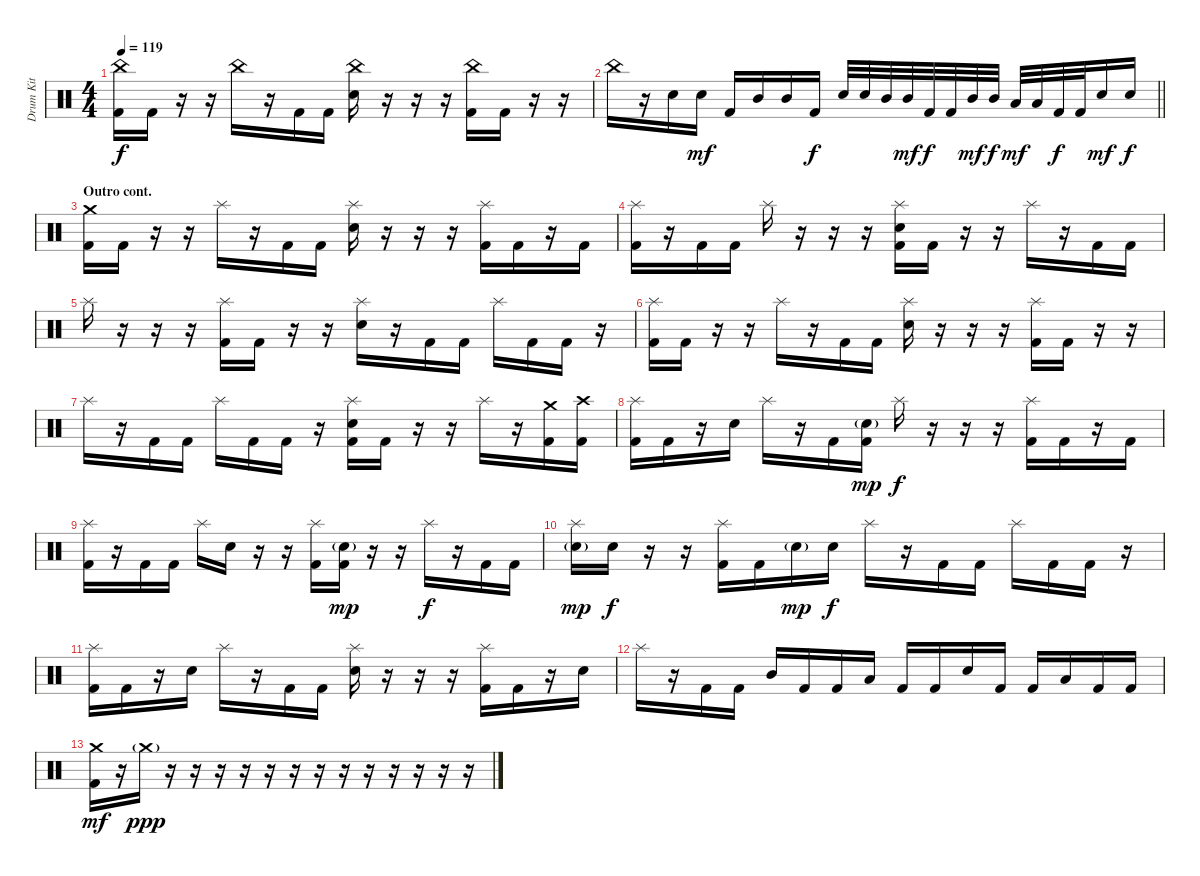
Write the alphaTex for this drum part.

\track ("Drum Kit" "Drum Kit") {instrument percussion}
\staff {score}
\articulation defaults
\ts (4 4)
\tempo 119
\clef neutral
\ks c
("China (hit)" "Kick (hit) 2").16{dy f} "Kick (hit) 2".16 r.16 r.16 "China (hit)".16 r.16 "Kick (hit) 2".16 "Kick (hit) 2".16 ("China (hit)" "Electric Snare (hit)").16 r.16 r.16 r.16 ("China (hit)" "Kick (hit) 2").16 "Kick (hit) 2".16 r.16 r.16 |
\barLineRight lightlight "China (hit)".16
r.16 "Electric Snare (hit)".16 "Electric Snare (hit)".16{dy mf} "Kick (hit) 2".16 "Mid Tom (hit)".16 "Mid Tom (hit)".16 "Kick (hit) 2".16{dy f} "Electric Snare (hit)".32 "Electric Snare (hit)".32 "Mid Tom (hit)".32 "Mid Tom (hit)".32{dy mf} "Kick (hit) 2".32{dy f} "Kick (hit) 2".32 "Mid Tom (hit)".32{dy mf} "Mid Tom (hit)".32{dy f} "Low Tom (hit)".32{dy mf} "Low Tom (hit)".32 "Kick (hit) 2".32{dy f} "Kick (hit) 2".32 "Electric Snare (hit)".16{dy mf} "Electric Snare (hit)".16{dy f} |
\section ("" "Outro cont.")
("Crash medium (hit)" "Kick (hit) 2").16 "Kick (hit) 2".16 r.16 r.16 "Splash (hit)".16 r.16 "Kick (hit) 2".16 "Kick (hit) 2".16 ("Splash (hit)" "Electric Snare (hit)").16 r.16 r.16 r.16 ("Splash (hit)" "Kick (hit) 2").16 "Kick (hit) 2".16 r.16 "Kick (hit) 2".16 |
("Splash (hit)" "Kick (hit) 2").16 r.16 "Kick (hit) 2".16 "Kick (hit) 2".16 "Splash (hit)".16 r.16 r.16 r.16 ("Splash (hit)" "Electric Snare (hit)" "Kick (hit) 2").16 "Kick (hit) 2".16 r.16 r.16 "Splash (hit)".16 r.16 "Kick (hit) 2".16 "Kick (hit) 2".16 |
"Splash (hit)".16 r.16 r.16 r.16 ("Splash (hit)" "Kick (hit) 2").16 "Kick (hit) 2".16 r.16 r.16 ("Splash (hit)" "Electric Snare (hit)").16 r.16 "Kick (hit) 2".16 "Kick (hit) 2".16 "Splash (hit)".16 "Kick (hit) 2".16 "Kick (hit) 2".16 r.16 |
("Splash (hit)" "Kick (hit) 2").16 "Kick (hit) 2".16 r.16 r.16 "Splash (hit)".16 r.16 "Kick (hit) 2".16 "Kick (hit) 2".16 ("Splash (hit)" "Electric Snare (hit)").16 r.16 r.16 r.16 ("Splash (hit)" "Kick (hit) 2").16 "Kick (hit) 2".16 r.16 r.16 |
"Splash (hit)".16 r.16 "Kick (hit) 2".16 "Kick (hit) 2".16 "Splash (hit)".16 "Kick (hit) 2".16 "Kick (hit) 2".16 r.16 ("Splash (hit)" "Electric Snare (hit)" "Kick (hit) 2").16 "Kick (hit) 2".16 r.16 r.16 "Splash (hit)".16 r.16 ("Crash medium (hit)" "Kick (hit) 2").16 ("Crash high (hit)" "Kick (hit) 2").16 |
("Splash (hit)" "Kick (hit) 2").16 "Kick (hit) 2".16 r.16 "Electric Snare (hit)".16 "Splash (hit)".16 r.16 "Kick (hit) 2".16 ("Electric Snare (hit)"{g} "Kick (hit) 2").16{dy mp} "Splash (hit)".16{dy f} r.16 r.16 r.16 ("Splash (hit)" "Kick (hit) 2").16 "Kick (hit) 2".16 r.16 "Kick (hit) 2".16 |
("Splash (hit)" "Kick (hit) 2").16 r.16 "Kick (hit) 2".16 "Kick (hit) 2".16 "Splash (hit)".16 "Electric Snare (hit)".16 r.16 r.16 ("Splash (hit)" "Kick (hit) 2").16 ("Electric Snare (hit)"{g} "Kick (hit) 2").16{dy mp} r.16 r.16 "Splash (hit)".16{dy f} r.16 "Kick (hit) 2".16 "Kick (hit) 2".16 |
("Splash (hit)" "Electric Snare (hit)"{g}).16{dy mp} "Electric Snare (hit)".16{dy f} r.16 r.16 ("Splash (hit)" "Kick (hit) 2").16 "Kick (hit) 2".16 "Electric Snare (hit)"{g}.16{dy mp} "Electric Snare (hit)".16{dy f} "Splash (hit)".16 r.16 "Kick (hit) 2".16 "Kick (hit) 2".16 "Splash (hit)".16 "Kick (hit) 2".16 "Kick (hit) 2".16 r.16 |
("Splash (hit)" "Kick (hit) 2").16 "Kick (hit) 2".16 r.16 "Electric Snare (hit)".16 "Splash (hit)".16 r.16 "Kick (hit) 2".16 "Kick (hit) 2".16 ("Splash (hit)" "Electric Snare (hit)").16 r.16 r.16 r.16 ("Splash (hit)" "Kick (hit) 2").16 "Kick (hit) 2".16 r.16 "Electric Snare (hit)".16 |
"Splash (hit)".16 r.16 "Kick (hit) 2".16 "Kick (hit) 2".16 "Mid Tom (hit)".16 "Kick (hit) 2".16 "Kick (hit) 2".16 "Low Tom (hit)".16 "Kick (hit) 2".16 "Kick (hit) 2".16 "Electric Snare (hit)".16 "Kick (hit) 2".16 "Kick (hit) 2".16 "Low Tom (hit)".16 "Kick (hit) 2".16 "Kick (hit) 2".16 |
("Crash medium (hit)" "Kick (hit) 2").16{dy mf} r.16 "Crash medium (hit)"{g}.16{dy ppp} r.16 r.16 r.16 r.16 r.16 r.16 r.16 r.16 r.16 r.16 r.16 r.16 r.16
